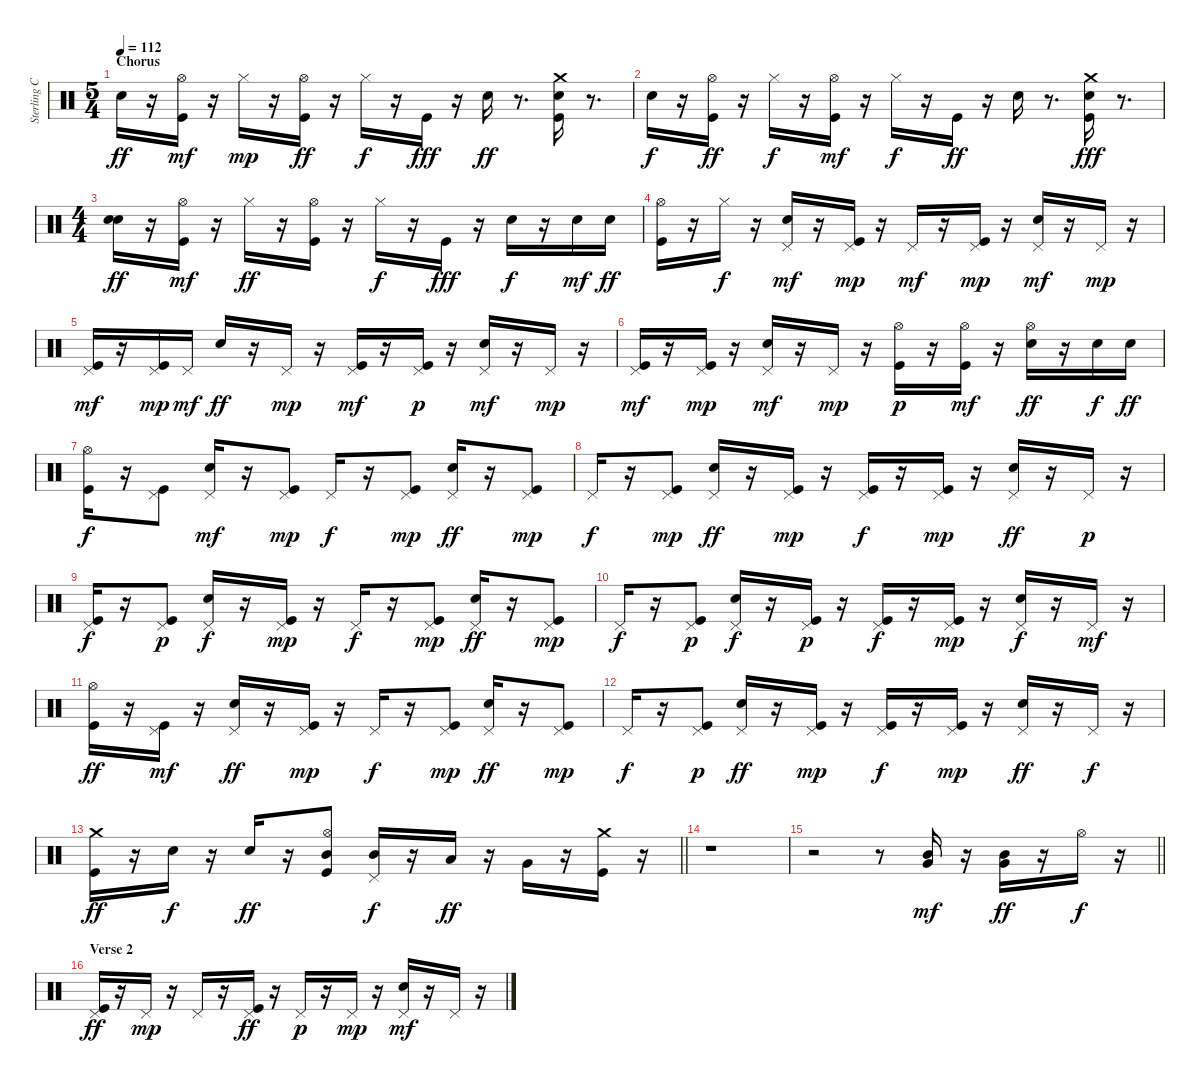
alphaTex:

\track ("Sterling Campbell" "Sterling C") {instrument percussion}
\staff {score}
\articulation defaults
\ts (5 4)
\section ("" "Chorus")
\tempo 112
\clef neutral
\ks c "Electric Snare (hit)".16{dy ff}
r.16 ("Kick (hit)" "Hi-Hat (open)").16{dy mf} r.16 "Hi-Hat (closed)".16{dy mp} r.16 ("Kick (hit)" "Hi-Hat (open)").16{dy ff} r.16 "Hi-Hat (closed)".16{dy f} r.16 "Kick (hit)".16{dy fff} r.16 "Electric Snare (hit)".16{dy ff} r.8{d} ("Electric Snare (hit)" "Kick (hit)" "Crash medium (hit)").16 r.8{d} |
"Electric Snare (hit)".16{dy f} r.16 ("Kick (hit)" "Hi-Hat (open)").16{dy ff} r.16 "Hi-Hat (closed)".16{dy f} r.16 ("Kick (hit)" "Hi-Hat (open)").16{dy mf} r.16 "Hi-Hat (closed)".16{dy f} r.16 "Kick (hit)".16{dy ff} r.16 "Electric Snare (hit)".16 r.8{d} ("Electric Snare (hit)" "Kick (hit)" "Crash medium (hit)").16{dy fff} r.8{d} |
\ts (4 4)
("Electric Snare (hit)" "Electric Snare (hit)").16{dy ff} r.16 ("Kick (hit)" "Hi-Hat (open)").16{dy mf} r.16 "Hi-Hat (closed)".16{dy ff} r.16 ("Kick (hit)" "Hi-Hat (open)").16 r.16 "Hi-Hat (closed)".16{dy f} r.16 "Kick (hit)".16{dy fff} r.16 "Electric Snare (hit)".16{dy f} r.16 "Electric Snare (hit)".16{dy mf} "Electric Snare (hit)".16{dy ff} |
("Kick (hit)" "Hi-Hat (open)").16 r.16 "Hi-Hat (closed)".16{dy f} r.16 ("Electric Snare (hit)" "Pedal Hi-Hat (hit)").16{dy mf} r.16 ("Kick (hit)" "Pedal Hi-Hat (hit)").16{dy mp} r.16 "Pedal Hi-Hat (hit)".16{dy mf} r.16 ("Kick (hit)" "Pedal Hi-Hat (hit)").16{dy mp} r.16 ("Electric Snare (hit)" "Pedal Hi-Hat (hit)").16{dy mf} r.16 "Pedal Hi-Hat (hit)".16{dy mp} r.16 |
("Kick (hit)" "Pedal Hi-Hat (hit)").16{dy mf} r.16 ("Kick (hit)" "Pedal Hi-Hat (hit)").16{dy mp} "Pedal Hi-Hat (hit)".16{dy mf} "Electric Snare (hit)".16{dy ff} r.16 "Pedal Hi-Hat (hit)".16{dy mp} r.16 ("Kick (hit)" "Pedal Hi-Hat (hit)").16{dy mf} r.16 ("Kick (hit)" "Pedal Hi-Hat (hit)").16{dy p} r.16 ("Electric Snare (hit)" "Pedal Hi-Hat (hit)").16{dy mf} r.16 "Pedal Hi-Hat (hit)".16{dy mp} r.16 |
("Kick (hit)" "Pedal Hi-Hat (hit)").16{dy mf} r.16 ("Kick (hit)" "Pedal Hi-Hat (hit)").16{dy mp} r.16 ("Electric Snare (hit)" "Pedal Hi-Hat (hit)").16{dy mf} r.16 "Pedal Hi-Hat (hit)".16{dy mp} r.16 ("Kick (hit)" "Hi-Hat (open)").16{dy p} r.16 ("Kick (hit)" "Hi-Hat (open)").16{dy mf} r.16 ("Electric Snare (hit)" "Hi-Hat (open)").16{dy ff} r.16 "Electric Snare (hit)".16{dy f} "Electric Snare (hit)".16{dy ff} |
("Kick (hit)" "Hi-Hat (open)").16{dy f} r.16 ("Kick (hit)" "Pedal Hi-Hat (hit)").8 ("Electric Snare (hit)" "Pedal Hi-Hat (hit)").16{dy mf} r.16 ("Kick (hit)" "Pedal Hi-Hat (hit)").8{dy mp} "Pedal Hi-Hat (hit)".16{dy f} r.16 ("Kick (hit)" "Pedal Hi-Hat (hit)").8{dy mp} ("Electric Snare (hit)" "Pedal Hi-Hat (hit)").16{dy ff} r.16 ("Kick (hit)" "Pedal Hi-Hat (hit)").8{dy mp} |
"Pedal Hi-Hat (hit)".16{dy f} r.16 ("Kick (hit)" "Pedal Hi-Hat (hit)").8{dy mp} ("Electric Snare (hit)" "Pedal Hi-Hat (hit)").16{dy ff} r.16 ("Kick (hit)" "Pedal Hi-Hat (hit)").16{dy mp} r.16 ("Kick (hit)" "Pedal Hi-Hat (hit)").16{dy f} r.16 ("Kick (hit)" "Pedal Hi-Hat (hit)").16{dy mp} r.16 ("Electric Snare (hit)" "Pedal Hi-Hat (hit)").16{dy ff} r.16 "Pedal Hi-Hat (hit)".16{dy p} r.16 |
("Kick (hit)" "Pedal Hi-Hat (hit)").16{dy f} r.16 ("Kick (hit)" "Pedal Hi-Hat (hit)").8{dy p} ("Electric Snare (hit)" "Pedal Hi-Hat (hit)").16{dy f} r.16 ("Kick (hit)" "Pedal Hi-Hat (hit)").16{dy mp} r.16 "Pedal Hi-Hat (hit)".16{dy f} r.16 ("Kick (hit)" "Pedal Hi-Hat (hit)").8{dy mp} ("Electric Snare (hit)" "Pedal Hi-Hat (hit)").16{dy ff} r.16 ("Kick (hit)" "Pedal Hi-Hat (hit)").8{dy mp} |
"Pedal Hi-Hat (hit)".16{dy f} r.16 ("Kick (hit)" "Pedal Hi-Hat (hit)").8{dy p} ("Electric Snare (hit)" "Pedal Hi-Hat (hit)").16{dy f} r.16 ("Kick (hit)" "Pedal Hi-Hat (hit)").16{dy p} r.16 ("Kick (hit)" "Pedal Hi-Hat (hit)").16{dy f} r.16 ("Kick (hit)" "Pedal Hi-Hat (hit)").16{dy mp} r.16 ("Electric Snare (hit)" "Pedal Hi-Hat (hit)").16{dy f} r.16 "Pedal Hi-Hat (hit)".16{dy mf} r.16 |
("Kick (hit)" "Hi-Hat (open)").16{dy ff} r.16 ("Kick (hit)" "Pedal Hi-Hat (hit)").16{dy mf} r.16 ("Electric Snare (hit)" "Pedal Hi-Hat (hit)").16{dy ff} r.16 ("Kick (hit)" "Pedal Hi-Hat (hit)").16{dy mp} r.16 "Pedal Hi-Hat (hit)".16{dy f} r.16 ("Kick (hit)" "Pedal Hi-Hat (hit)").8{dy mp} ("Electric Snare (hit)" "Pedal Hi-Hat (hit)").16{dy ff} r.16 ("Kick (hit)" "Pedal Hi-Hat (hit)").8{dy mp} |
"Pedal Hi-Hat (hit)".16{dy f} r.16 ("Kick (hit)" "Pedal Hi-Hat (hit)").8{dy p} ("Electric Snare (hit)" "Pedal Hi-Hat (hit)").16{dy ff} r.16 ("Kick (hit)" "Pedal Hi-Hat (hit)").16{dy mp} r.16 ("Kick (hit)" "Pedal Hi-Hat (hit)").16{dy f} r.16 ("Kick (hit)" "Pedal Hi-Hat (hit)").16{dy mp} r.16 ("Electric Snare (hit)" "Pedal Hi-Hat (hit)").16{dy ff} r.16 "Pedal Hi-Hat (hit)".16{dy f} r.16 |
\barLineRight lightlight
("Kick (hit)" "Crash medium (hit)").16{dy ff} r.16 "Electric Snare (hit)".16{dy f} r.16 "Electric Snare (hit)".16{dy ff} r.16 ("Kick (hit)" "Mid Tom (hit)" "Hi-Hat (open)").8 ("Mid Tom (hit)" "Pedal Hi-Hat (hit)").16{dy f} r.16 "Low Tom (hit)".16{dy ff} r.16 "Very Low Tom (hit)".16 r.16 ("Kick (hit)" "Crash medium (hit)").16 r.16 |
r.1 |
\barLineRight lightlight
r.2 r.8 ("Mid Tom (hit)" "Very Low Tom (hit)").16{dy mf} r.16 ("Mid Tom (hit)" "Very Low Tom (hit)").16{dy ff} r.16 "Hi-Hat (open)".16{dy f} r.16 |
\section ("" "Verse 2")
("Kick (hit)" "Pedal Hi-Hat (hit)").16{dy ff} r.16 "Pedal Hi-Hat (hit)".16{dy mp} r.16 "Pedal Hi-Hat (hit)".16 r.16 ("Kick (hit)" "Pedal Hi-Hat (hit)").16{dy ff} r.16 "Pedal Hi-Hat (hit)".16{dy p} r.16 "Pedal Hi-Hat (hit)".16{dy mp} r.16 ("Electric Snare (hit)" "Pedal Hi-Hat (hit)").16{dy mf} r.16 "Pedal Hi-Hat (hit)".16 r.16
